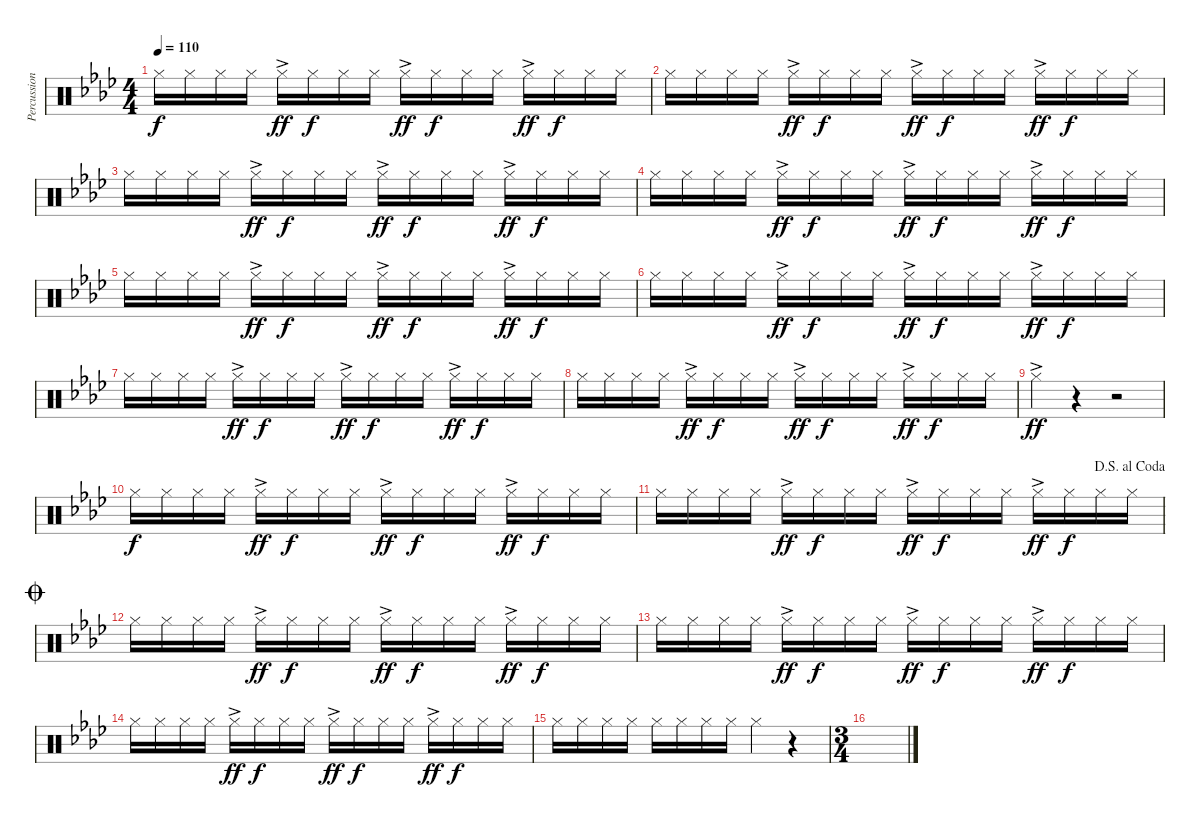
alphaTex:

\track ("Percussion" "Percussion") {instrument percussion}
\staff {score}
\articulation defaults
\ts (4 4)
\tempo 110
\clef neutral
\ks ab "Hi-Hat (closed)".16{dy f} "Hi-Hat (closed)".16 "Hi-Hat (closed)".16 "Hi-Hat (closed)".16 "Hi-Hat (closed)"{ac}.16{dy ff} "Hi-Hat (closed)".16{dy f} "Hi-Hat (closed)".16 "Hi-Hat (closed)".16 "Hi-Hat (closed)"{ac}.16{dy ff} "Hi-Hat (closed)".16{dy f} "Hi-Hat (closed)".16 "Hi-Hat (closed)".16 "Hi-Hat (closed)"{ac}.16{dy ff} "Hi-Hat (closed)".16{dy f} "Hi-Hat (closed)".16 "Hi-Hat (closed)".16
|
"Hi-Hat (closed)".16 "Hi-Hat (closed)".16 "Hi-Hat (closed)".16 "Hi-Hat (closed)".16 "Hi-Hat (closed)"{ac}.16{dy ff} "Hi-Hat (closed)".16{dy f} "Hi-Hat (closed)".16 "Hi-Hat (closed)".16 "Hi-Hat (closed)"{ac}.16{dy ff} "Hi-Hat (closed)".16{dy f} "Hi-Hat (closed)".16 "Hi-Hat (closed)".16 "Hi-Hat (closed)"{ac}.16{dy ff} "Hi-Hat (closed)".16{dy f} "Hi-Hat (closed)".16 "Hi-Hat (closed)".16 |
"Hi-Hat (closed)".16 "Hi-Hat (closed)".16 "Hi-Hat (closed)".16 "Hi-Hat (closed)".16 "Hi-Hat (closed)"{ac}.16{dy ff} "Hi-Hat (closed)".16{dy f} "Hi-Hat (closed)".16 "Hi-Hat (closed)".16 "Hi-Hat (closed)"{ac}.16{dy ff} "Hi-Hat (closed)".16{dy f} "Hi-Hat (closed)".16 "Hi-Hat (closed)".16 "Hi-Hat (closed)"{ac}.16{dy ff} "Hi-Hat (closed)".16{dy f} "Hi-Hat (closed)".16 "Hi-Hat (closed)".16 |
"Hi-Hat (closed)".16 "Hi-Hat (closed)".16 "Hi-Hat (closed)".16 "Hi-Hat (closed)".16 "Hi-Hat (closed)"{ac}.16{dy ff} "Hi-Hat (closed)".16{dy f} "Hi-Hat (closed)".16 "Hi-Hat (closed)".16 "Hi-Hat (closed)"{ac}.16{dy ff} "Hi-Hat (closed)".16{dy f} "Hi-Hat (closed)".16 "Hi-Hat (closed)".16 "Hi-Hat (closed)"{ac}.16{dy ff} "Hi-Hat (closed)".16{dy f} "Hi-Hat (closed)".16 "Hi-Hat (closed)".16 |
"Hi-Hat (closed)".16 "Hi-Hat (closed)".16 "Hi-Hat (closed)".16 "Hi-Hat (closed)".16 "Hi-Hat (closed)"{ac}.16{dy ff} "Hi-Hat (closed)".16{dy f} "Hi-Hat (closed)".16 "Hi-Hat (closed)".16 "Hi-Hat (closed)"{ac}.16{dy ff} "Hi-Hat (closed)".16{dy f} "Hi-Hat (closed)".16 "Hi-Hat (closed)".16 "Hi-Hat (closed)"{ac}.16{dy ff} "Hi-Hat (closed)".16{dy f} "Hi-Hat (closed)".16 "Hi-Hat (closed)".16 |
"Hi-Hat (closed)".16 "Hi-Hat (closed)".16 "Hi-Hat (closed)".16 "Hi-Hat (closed)".16 "Hi-Hat (closed)"{ac}.16{dy ff} "Hi-Hat (closed)".16{dy f} "Hi-Hat (closed)".16 "Hi-Hat (closed)".16 "Hi-Hat (closed)"{ac}.16{dy ff} "Hi-Hat (closed)".16{dy f} "Hi-Hat (closed)".16 "Hi-Hat (closed)".16 "Hi-Hat (closed)"{ac}.16{dy ff} "Hi-Hat (closed)".16{dy f} "Hi-Hat (closed)".16 "Hi-Hat (closed)".16 |
"Hi-Hat (closed)".16 "Hi-Hat (closed)".16 "Hi-Hat (closed)".16 "Hi-Hat (closed)".16 "Hi-Hat (closed)"{ac}.16{dy ff} "Hi-Hat (closed)".16{dy f} "Hi-Hat (closed)".16 "Hi-Hat (closed)".16 "Hi-Hat (closed)"{ac}.16{dy ff} "Hi-Hat (closed)".16{dy f} "Hi-Hat (closed)".16 "Hi-Hat (closed)".16 "Hi-Hat (closed)"{ac}.16{dy ff} "Hi-Hat (closed)".16{dy f} "Hi-Hat (closed)".16 "Hi-Hat (closed)".16 |
"Hi-Hat (closed)".16 "Hi-Hat (closed)".16 "Hi-Hat (closed)".16 "Hi-Hat (closed)".16 "Hi-Hat (closed)"{ac}.16{dy ff} "Hi-Hat (closed)".16{dy f} "Hi-Hat (closed)".16 "Hi-Hat (closed)".16 "Hi-Hat (closed)"{ac}.16{dy ff} "Hi-Hat (closed)".16{dy f} "Hi-Hat (closed)".16 "Hi-Hat (closed)".16 "Hi-Hat (closed)"{ac}.16{dy ff} "Hi-Hat (closed)".16{dy f} "Hi-Hat (closed)".16 "Hi-Hat (closed)".16 |
"Hi-Hat (closed)"{ac}.4{dy ff} r.4 r.2 |
"Hi-Hat (closed)".16{dy f} "Hi-Hat (closed)".16 "Hi-Hat (closed)".16 "Hi-Hat (closed)".16 "Hi-Hat (closed)"{ac}.16{dy ff} "Hi-Hat (closed)".16{dy f} "Hi-Hat (closed)".16 "Hi-Hat (closed)".16 "Hi-Hat (closed)"{ac}.16{dy ff} "Hi-Hat (closed)".16{dy f} "Hi-Hat (closed)".16 "Hi-Hat (closed)".16 "Hi-Hat (closed)"{ac}.16{dy ff} "Hi-Hat (closed)".16{dy f} "Hi-Hat (closed)".16 "Hi-Hat (closed)".16 |
\jump dalsegnoalcoda "Hi-Hat (closed)".16 "Hi-Hat (closed)".16 "Hi-Hat (closed)".16 "Hi-Hat (closed)".16 "Hi-Hat (closed)"{ac}.16{dy ff} "Hi-Hat (closed)".16{dy f} "Hi-Hat (closed)".16 "Hi-Hat (closed)".16 "Hi-Hat (closed)"{ac}.16{dy ff} "Hi-Hat (closed)".16{dy f} "Hi-Hat (closed)".16 "Hi-Hat (closed)".16 "Hi-Hat (closed)"{ac}.16{dy ff} "Hi-Hat (closed)".16{dy f} "Hi-Hat (closed)".16 "Hi-Hat (closed)".16
|
\jump coda "Hi-Hat (closed)".16 "Hi-Hat (closed)".16 "Hi-Hat (closed)".16 "Hi-Hat (closed)".16 "Hi-Hat (closed)"{ac}.16{dy ff} "Hi-Hat (closed)".16{dy f} "Hi-Hat (closed)".16 "Hi-Hat (closed)".16 "Hi-Hat (closed)"{ac}.16{dy ff} "Hi-Hat (closed)".16{dy f} "Hi-Hat (closed)".16 "Hi-Hat (closed)".16 "Hi-Hat (closed)"{ac}.16{dy ff} "Hi-Hat (closed)".16{dy f} "Hi-Hat (closed)".16 "Hi-Hat (closed)".16
|
"Hi-Hat (closed)".16 "Hi-Hat (closed)".16 "Hi-Hat (closed)".16 "Hi-Hat (closed)".16 "Hi-Hat (closed)"{ac}.16{dy ff} "Hi-Hat (closed)".16{dy f} "Hi-Hat (closed)".16 "Hi-Hat (closed)".16 "Hi-Hat (closed)"{ac}.16{dy ff} "Hi-Hat (closed)".16{dy f} "Hi-Hat (closed)".16 "Hi-Hat (closed)".16 "Hi-Hat (closed)"{ac}.16{dy ff} "Hi-Hat (closed)".16{dy f} "Hi-Hat (closed)".16 "Hi-Hat (closed)".16 |
"Hi-Hat (closed)".16 "Hi-Hat (closed)".16 "Hi-Hat (closed)".16 "Hi-Hat (closed)".16 "Hi-Hat (closed)"{ac}.16{dy ff} "Hi-Hat (closed)".16{dy f} "Hi-Hat (closed)".16 "Hi-Hat (closed)".16 "Hi-Hat (closed)"{ac}.16{dy ff} "Hi-Hat (closed)".16{dy f} "Hi-Hat (closed)".16 "Hi-Hat (closed)".16 "Hi-Hat (closed)"{ac}.16{dy ff} "Hi-Hat (closed)".16{dy f} "Hi-Hat (closed)".16 "Hi-Hat (closed)".16 |
"Hi-Hat (closed)".16 "Hi-Hat (closed)".16 "Hi-Hat (closed)".16 "Hi-Hat (closed)".16 "Hi-Hat (closed)".16 "Hi-Hat (closed)".16 "Hi-Hat (closed)".16 "Hi-Hat (closed)".16 "Hi-Hat (closed)".4 r.4 |
\ts (3 4)
